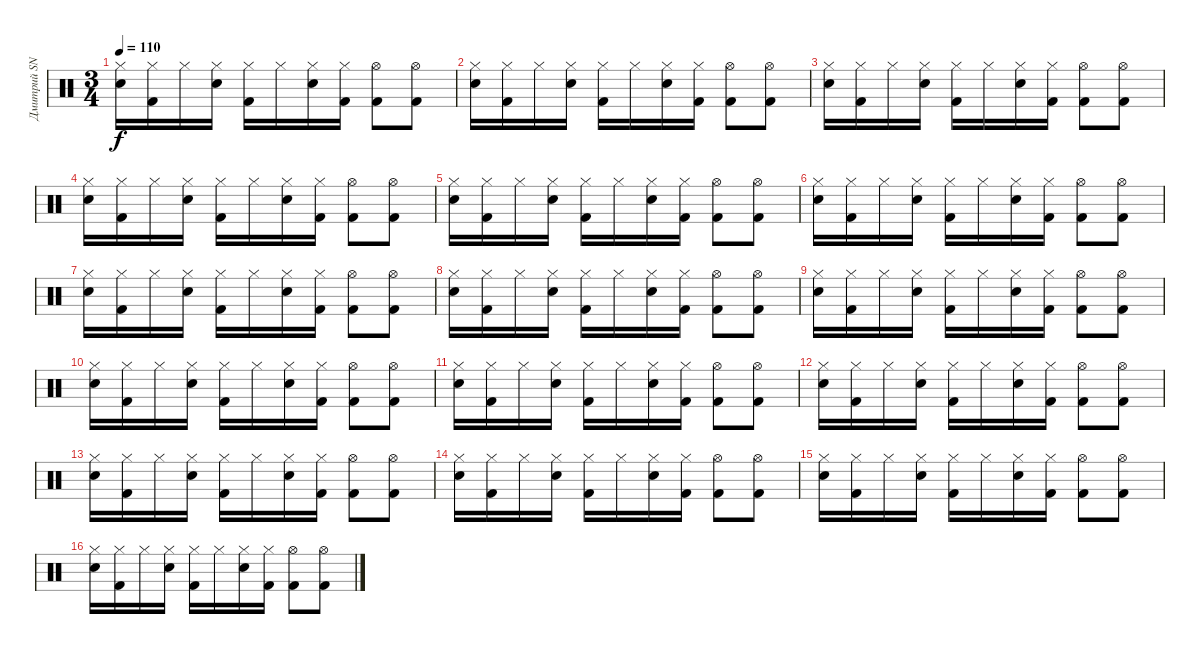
\track ("Дмитрий SNAKE" "Дмитрий SN") {instrument percussion}
\staff {score}
\articulation defaults
\ts (3 4)
\tempo 110
\clef neutral
\ks c
("Hi-Hat (closed)" "Snare (hit) 2").16{dy f} ("Hi-Hat (closed)" "Kick (hit) 2").16 "Hi-Hat (closed)".16 ("Hi-Hat (closed)" "Snare (hit) 2").16 ("Hi-Hat (closed)" "Kick (hit) 2").16 "Hi-Hat (closed)".16 ("Hi-Hat (closed)" "Snare (hit) 2").16 ("Hi-Hat (closed)" "Kick (hit) 2").16 ("Hi-Hat (open)" "Kick (hit) 2").8 ("Hi-Hat (open)" "Kick (hit) 2").8 |
("Hi-Hat (closed)" "Snare (hit) 2").16 ("Hi-Hat (closed)" "Kick (hit) 2").16 "Hi-Hat (closed)".16 ("Hi-Hat (closed)" "Snare (hit) 2").16 ("Hi-Hat (closed)" "Kick (hit) 2").16 "Hi-Hat (closed)".16 ("Hi-Hat (closed)" "Snare (hit) 2").16 ("Hi-Hat (closed)" "Kick (hit) 2").16 ("Hi-Hat (open)" "Kick (hit) 2").8 ("Hi-Hat (open)" "Kick (hit) 2").8 |
("Hi-Hat (closed)" "Snare (hit) 2").16 ("Hi-Hat (closed)" "Kick (hit) 2").16 "Hi-Hat (closed)".16 ("Hi-Hat (closed)" "Snare (hit) 2").16 ("Hi-Hat (closed)" "Kick (hit) 2").16 "Hi-Hat (closed)".16 ("Hi-Hat (closed)" "Snare (hit) 2").16 ("Hi-Hat (closed)" "Kick (hit) 2").16 ("Hi-Hat (open)" "Kick (hit) 2").8 ("Hi-Hat (open)" "Kick (hit) 2").8 |
("Hi-Hat (closed)" "Snare (hit) 2").16 ("Hi-Hat (closed)" "Kick (hit) 2").16 "Hi-Hat (closed)".16 ("Hi-Hat (closed)" "Snare (hit) 2").16 ("Hi-Hat (closed)" "Kick (hit) 2").16 "Hi-Hat (closed)".16 ("Hi-Hat (closed)" "Snare (hit) 2").16 ("Hi-Hat (closed)" "Kick (hit) 2").16 ("Hi-Hat (open)" "Kick (hit) 2").8 ("Hi-Hat (open)" "Kick (hit) 2").8 |
("Hi-Hat (closed)" "Snare (hit) 2").16 ("Hi-Hat (closed)" "Kick (hit) 2").16 "Hi-Hat (closed)".16 ("Hi-Hat (closed)" "Snare (hit) 2").16 ("Hi-Hat (closed)" "Kick (hit) 2").16 "Hi-Hat (closed)".16 ("Hi-Hat (closed)" "Snare (hit) 2").16 ("Hi-Hat (closed)" "Kick (hit) 2").16 ("Hi-Hat (open)" "Kick (hit) 2").8 ("Hi-Hat (open)" "Kick (hit) 2").8 |
("Hi-Hat (closed)" "Snare (hit) 2").16 ("Hi-Hat (closed)" "Kick (hit) 2").16 "Hi-Hat (closed)".16 ("Hi-Hat (closed)" "Snare (hit) 2").16 ("Hi-Hat (closed)" "Kick (hit) 2").16 "Hi-Hat (closed)".16 ("Hi-Hat (closed)" "Snare (hit) 2").16 ("Hi-Hat (closed)" "Kick (hit) 2").16 ("Hi-Hat (open)" "Kick (hit) 2").8 ("Hi-Hat (open)" "Kick (hit) 2").8 |
("Hi-Hat (closed)" "Snare (hit) 2").16 ("Hi-Hat (closed)" "Kick (hit) 2").16 "Hi-Hat (closed)".16 ("Hi-Hat (closed)" "Snare (hit) 2").16 ("Hi-Hat (closed)" "Kick (hit) 2").16 "Hi-Hat (closed)".16 ("Hi-Hat (closed)" "Snare (hit) 2").16 ("Hi-Hat (closed)" "Kick (hit) 2").16 ("Hi-Hat (open)" "Kick (hit) 2").8 ("Hi-Hat (open)" "Kick (hit) 2").8 |
("Hi-Hat (closed)" "Snare (hit) 2").16 ("Hi-Hat (closed)" "Kick (hit) 2").16 "Hi-Hat (closed)".16 ("Hi-Hat (closed)" "Snare (hit) 2").16 ("Hi-Hat (closed)" "Kick (hit) 2").16 "Hi-Hat (closed)".16 ("Hi-Hat (closed)" "Snare (hit) 2").16 ("Hi-Hat (closed)" "Kick (hit) 2").16 ("Hi-Hat (open)" "Kick (hit) 2").8 ("Hi-Hat (open)" "Kick (hit) 2").8 |
("Hi-Hat (closed)" "Snare (hit) 2").16 ("Hi-Hat (closed)" "Kick (hit) 2").16 "Hi-Hat (closed)".16 ("Hi-Hat (closed)" "Snare (hit) 2").16 ("Hi-Hat (closed)" "Kick (hit) 2").16 "Hi-Hat (closed)".16 ("Hi-Hat (closed)" "Snare (hit) 2").16 ("Hi-Hat (closed)" "Kick (hit) 2").16 ("Hi-Hat (open)" "Kick (hit) 2").8 ("Hi-Hat (open)" "Kick (hit) 2").8 |
("Hi-Hat (closed)" "Snare (hit) 2").16 ("Hi-Hat (closed)" "Kick (hit) 2").16 "Hi-Hat (closed)".16 ("Hi-Hat (closed)" "Snare (hit) 2").16 ("Hi-Hat (closed)" "Kick (hit) 2").16 "Hi-Hat (closed)".16 ("Hi-Hat (closed)" "Snare (hit) 2").16 ("Hi-Hat (closed)" "Kick (hit) 2").16 ("Hi-Hat (open)" "Kick (hit) 2").8 ("Hi-Hat (open)" "Kick (hit) 2").8 |
("Hi-Hat (closed)" "Snare (hit) 2").16 ("Hi-Hat (closed)" "Kick (hit) 2").16 "Hi-Hat (closed)".16 ("Hi-Hat (closed)" "Snare (hit) 2").16 ("Hi-Hat (closed)" "Kick (hit) 2").16 "Hi-Hat (closed)".16 ("Hi-Hat (closed)" "Snare (hit) 2").16 ("Hi-Hat (closed)" "Kick (hit) 2").16 ("Hi-Hat (open)" "Kick (hit) 2").8 ("Hi-Hat (open)" "Kick (hit) 2").8 |
("Hi-Hat (closed)" "Snare (hit) 2").16 ("Hi-Hat (closed)" "Kick (hit) 2").16 "Hi-Hat (closed)".16 ("Hi-Hat (closed)" "Snare (hit) 2").16 ("Hi-Hat (closed)" "Kick (hit) 2").16 "Hi-Hat (closed)".16 ("Hi-Hat (closed)" "Snare (hit) 2").16 ("Hi-Hat (closed)" "Kick (hit) 2").16 ("Hi-Hat (open)" "Kick (hit) 2").8 ("Hi-Hat (open)" "Kick (hit) 2").8 |
("Hi-Hat (closed)" "Snare (hit) 2").16 ("Hi-Hat (closed)" "Kick (hit) 2").16 "Hi-Hat (closed)".16 ("Hi-Hat (closed)" "Snare (hit) 2").16 ("Hi-Hat (closed)" "Kick (hit) 2").16 "Hi-Hat (closed)".16 ("Hi-Hat (closed)" "Snare (hit) 2").16 ("Hi-Hat (closed)" "Kick (hit) 2").16 ("Hi-Hat (open)" "Kick (hit) 2").8 ("Hi-Hat (open)" "Kick (hit) 2").8 |
("Hi-Hat (closed)" "Snare (hit) 2").16 ("Hi-Hat (closed)" "Kick (hit) 2").16 "Hi-Hat (closed)".16 ("Hi-Hat (closed)" "Snare (hit) 2").16 ("Hi-Hat (closed)" "Kick (hit) 2").16 "Hi-Hat (closed)".16 ("Hi-Hat (closed)" "Snare (hit) 2").16 ("Hi-Hat (closed)" "Kick (hit) 2").16 ("Hi-Hat (open)" "Kick (hit) 2").8 ("Hi-Hat (open)" "Kick (hit) 2").8 |
("Hi-Hat (closed)" "Snare (hit) 2").16 ("Hi-Hat (closed)" "Kick (hit) 2").16 "Hi-Hat (closed)".16 ("Hi-Hat (closed)" "Snare (hit) 2").16 ("Hi-Hat (closed)" "Kick (hit) 2").16 "Hi-Hat (closed)".16 ("Hi-Hat (closed)" "Snare (hit) 2").16 ("Hi-Hat (closed)" "Kick (hit) 2").16 ("Hi-Hat (open)" "Kick (hit) 2").8 ("Hi-Hat (open)" "Kick (hit) 2").8 |
("Hi-Hat (closed)" "Snare (hit) 2").16 ("Hi-Hat (closed)" "Kick (hit) 2").16 "Hi-Hat (closed)".16 ("Hi-Hat (closed)" "Snare (hit) 2").16 ("Hi-Hat (closed)" "Kick (hit) 2").16 "Hi-Hat (closed)".16 ("Hi-Hat (closed)" "Snare (hit) 2").16 ("Hi-Hat (closed)" "Kick (hit) 2").16 ("Hi-Hat (open)" "Kick (hit) 2").8 ("Hi-Hat (open)" "Kick (hit) 2").8
